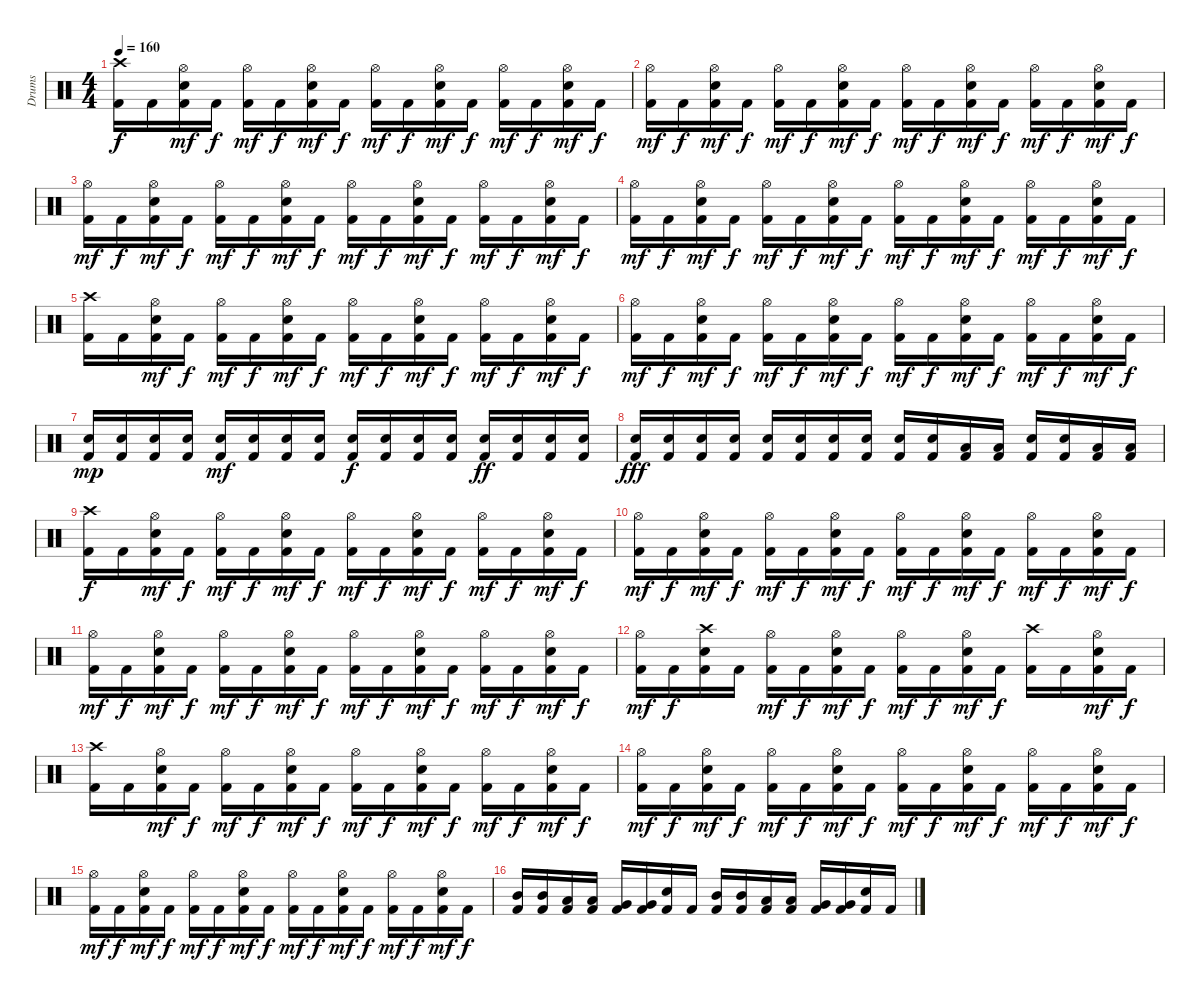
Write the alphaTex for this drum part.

\track ("Drums" "Drums") {instrument percussion}
\staff {score}
\articulation defaults
\ts (4 4)
\tempo 160
\clef neutral
\ks c
("Crash high (hit)" "Kick (hit) 2").16{dy f} "Kick (hit) 2".16 ("Hi-Hat (open)" "Electric Snare (hit)" "Kick (hit) 2").16{dy mf} "Kick (hit) 2".16{dy f} ("Hi-Hat (open)" "Kick (hit) 2").16{dy mf} "Kick (hit) 2".16{dy f} ("Hi-Hat (open)" "Electric Snare (hit)" "Kick (hit) 2").16{dy mf} "Kick (hit) 2".16{dy f} ("Hi-Hat (open)" "Kick (hit) 2").16{dy mf} "Kick (hit) 2".16{dy f} ("Hi-Hat (open)" "Electric Snare (hit)" "Kick (hit) 2").16{dy mf} "Kick (hit) 2".16{dy f} ("Hi-Hat (open)" "Kick (hit) 2").16{dy mf} "Kick (hit) 2".16{dy f} ("Hi-Hat (open)" "Electric Snare (hit)" "Kick (hit) 2").16{dy mf} "Kick (hit) 2".16{dy f} |
("Hi-Hat (open)" "Kick (hit) 2").16{dy mf} "Kick (hit) 2".16{dy f} ("Hi-Hat (open)" "Electric Snare (hit)" "Kick (hit) 2").16{dy mf} "Kick (hit) 2".16{dy f} ("Hi-Hat (open)" "Kick (hit) 2").16{dy mf} "Kick (hit) 2".16{dy f} ("Hi-Hat (open)" "Electric Snare (hit)" "Kick (hit) 2").16{dy mf} "Kick (hit) 2".16{dy f} ("Hi-Hat (open)" "Kick (hit) 2").16{dy mf} "Kick (hit) 2".16{dy f} ("Hi-Hat (open)" "Electric Snare (hit)" "Kick (hit) 2").16{dy mf} "Kick (hit) 2".16{dy f} ("Hi-Hat (open)" "Kick (hit) 2").16{dy mf} "Kick (hit) 2".16{dy f} ("Hi-Hat (open)" "Electric Snare (hit)" "Kick (hit) 2").16{dy mf} "Kick (hit) 2".16{dy f} |
("Hi-Hat (open)" "Kick (hit) 2").16{dy mf} "Kick (hit) 2".16{dy f} ("Hi-Hat (open)" "Electric Snare (hit)" "Kick (hit) 2").16{dy mf} "Kick (hit) 2".16{dy f} ("Hi-Hat (open)" "Kick (hit) 2").16{dy mf} "Kick (hit) 2".16{dy f} ("Hi-Hat (open)" "Electric Snare (hit)" "Kick (hit) 2").16{dy mf} "Kick (hit) 2".16{dy f} ("Hi-Hat (open)" "Kick (hit) 2").16{dy mf} "Kick (hit) 2".16{dy f} ("Hi-Hat (open)" "Electric Snare (hit)" "Kick (hit) 2").16{dy mf} "Kick (hit) 2".16{dy f} ("Hi-Hat (open)" "Kick (hit) 2").16{dy mf} "Kick (hit) 2".16{dy f} ("Hi-Hat (open)" "Electric Snare (hit)" "Kick (hit) 2").16{dy mf} "Kick (hit) 2".16{dy f} |
("Hi-Hat (open)" "Kick (hit) 2").16{dy mf} "Kick (hit) 2".16{dy f} ("Hi-Hat (open)" "Electric Snare (hit)" "Kick (hit) 2").16{dy mf} "Kick (hit) 2".16{dy f} ("Hi-Hat (open)" "Kick (hit) 2").16{dy mf} "Kick (hit) 2".16{dy f} ("Hi-Hat (open)" "Electric Snare (hit)" "Kick (hit) 2").16{dy mf} "Kick (hit) 2".16{dy f} ("Hi-Hat (open)" "Kick (hit) 2").16{dy mf} "Kick (hit) 2".16{dy f} ("Hi-Hat (open)" "Electric Snare (hit)" "Kick (hit) 2").16{dy mf} "Kick (hit) 2".16{dy f} ("Hi-Hat (open)" "Kick (hit) 2").16{dy mf} "Kick (hit) 2".16{dy f} ("Hi-Hat (open)" "Electric Snare (hit)" "Kick (hit) 2").16{dy mf} "Kick (hit) 2".16{dy f} |
("Crash high (hit)" "Kick (hit) 2").16 "Kick (hit) 2".16 ("Hi-Hat (open)" "Electric Snare (hit)" "Kick (hit) 2").16{dy mf} "Kick (hit) 2".16{dy f} ("Hi-Hat (open)" "Kick (hit) 2").16{dy mf} "Kick (hit) 2".16{dy f} ("Hi-Hat (open)" "Electric Snare (hit)" "Kick (hit) 2").16{dy mf} "Kick (hit) 2".16{dy f} ("Hi-Hat (open)" "Kick (hit) 2").16{dy mf} "Kick (hit) 2".16{dy f} ("Hi-Hat (open)" "Electric Snare (hit)" "Kick (hit) 2").16{dy mf} "Kick (hit) 2".16{dy f} ("Hi-Hat (open)" "Kick (hit) 2").16{dy mf} "Kick (hit) 2".16{dy f} ("Hi-Hat (open)" "Electric Snare (hit)" "Kick (hit) 2").16{dy mf} "Kick (hit) 2".16{dy f} |
("Hi-Hat (open)" "Kick (hit) 2").16{dy mf} "Kick (hit) 2".16{dy f} ("Hi-Hat (open)" "Electric Snare (hit)" "Kick (hit) 2").16{dy mf} "Kick (hit) 2".16{dy f} ("Hi-Hat (open)" "Kick (hit) 2").16{dy mf} "Kick (hit) 2".16{dy f} ("Hi-Hat (open)" "Electric Snare (hit)" "Kick (hit) 2").16{dy mf} "Kick (hit) 2".16{dy f} ("Hi-Hat (open)" "Kick (hit) 2").16{dy mf} "Kick (hit) 2".16{dy f} ("Hi-Hat (open)" "Electric Snare (hit)" "Kick (hit) 2").16{dy mf} "Kick (hit) 2".16{dy f} ("Hi-Hat (open)" "Kick (hit) 2").16{dy mf} "Kick (hit) 2".16{dy f} ("Hi-Hat (open)" "Electric Snare (hit)" "Kick (hit) 2").16{dy mf} "Kick (hit) 2".16{dy f} |
("Electric Snare (hit)" "Kick (hit) 2").16{dy mp} ("Electric Snare (hit)" "Kick (hit) 2").16 ("Electric Snare (hit)" "Kick (hit) 2").16 ("Electric Snare (hit)" "Kick (hit) 2").16 ("Electric Snare (hit)" "Kick (hit) 2").16{dy mf} ("Electric Snare (hit)" "Kick (hit) 2").16 ("Electric Snare (hit)" "Kick (hit) 2").16 ("Electric Snare (hit)" "Kick (hit) 2").16 ("Electric Snare (hit)" "Kick (hit) 2").16{dy f} ("Electric Snare (hit)" "Kick (hit) 2").16 ("Electric Snare (hit)" "Kick (hit) 2").16 ("Electric Snare (hit)" "Kick (hit) 2").16 ("Electric Snare (hit)" "Kick (hit) 2").16{dy ff} ("Electric Snare (hit)" "Kick (hit) 2").16 ("Electric Snare (hit)" "Kick (hit) 2").16 ("Electric Snare (hit)" "Kick (hit) 2").16 |
("Electric Snare (hit)" "Kick (hit) 2").16{dy fff} ("Electric Snare (hit)" "Kick (hit) 2").16 ("Electric Snare (hit)" "Kick (hit) 2").16 ("Electric Snare (hit)" "Kick (hit) 2").16 ("Electric Snare (hit)" "Kick (hit) 2").16 ("Electric Snare (hit)" "Kick (hit) 2").16 ("Electric Snare (hit)" "Kick (hit) 2").16 ("Electric Snare (hit)" "Kick (hit) 2").16 ("Electric Snare (hit)" "Kick (hit) 2").16 ("Electric Snare (hit)" "Kick (hit) 2").16 ("Low Floor Tom (hit)" "Kick (hit) 2").16 ("Low Floor Tom (hit)" "Kick (hit) 2").16 ("Electric Snare (hit)" "Kick (hit) 2").16 ("Electric Snare (hit)" "Kick (hit) 2").16 ("Low Floor Tom (hit)" "Kick (hit) 2").16 ("Low Floor Tom (hit)" "Kick (hit) 2").16 |
("Crash high (hit)" "Kick (hit) 2").16{dy f} "Kick (hit) 2".16 ("Hi-Hat (open)" "Electric Snare (hit)" "Kick (hit) 2").16{dy mf} "Kick (hit) 2".16{dy f} ("Hi-Hat (open)" "Kick (hit) 2").16{dy mf} "Kick (hit) 2".16{dy f} ("Hi-Hat (open)" "Electric Snare (hit)" "Kick (hit) 2").16{dy mf} "Kick (hit) 2".16{dy f} ("Hi-Hat (open)" "Kick (hit) 2").16{dy mf} "Kick (hit) 2".16{dy f} ("Hi-Hat (open)" "Electric Snare (hit)" "Kick (hit) 2").16{dy mf} "Kick (hit) 2".16{dy f} ("Hi-Hat (open)" "Kick (hit) 2").16{dy mf} "Kick (hit) 2".16{dy f} ("Hi-Hat (open)" "Electric Snare (hit)" "Kick (hit) 2").16{dy mf} "Kick (hit) 2".16{dy f} |
("Hi-Hat (open)" "Kick (hit) 2").16{dy mf} "Kick (hit) 2".16{dy f} ("Hi-Hat (open)" "Electric Snare (hit)" "Kick (hit) 2").16{dy mf} "Kick (hit) 2".16{dy f} ("Hi-Hat (open)" "Kick (hit) 2").16{dy mf} "Kick (hit) 2".16{dy f} ("Hi-Hat (open)" "Electric Snare (hit)" "Kick (hit) 2").16{dy mf} "Kick (hit) 2".16{dy f} ("Hi-Hat (open)" "Kick (hit) 2").16{dy mf} "Kick (hit) 2".16{dy f} ("Hi-Hat (open)" "Electric Snare (hit)" "Kick (hit) 2").16{dy mf} "Kick (hit) 2".16{dy f} ("Hi-Hat (open)" "Kick (hit) 2").16{dy mf} "Kick (hit) 2".16{dy f} ("Hi-Hat (open)" "Electric Snare (hit)" "Kick (hit) 2").16{dy mf} "Kick (hit) 2".16{dy f} |
("Hi-Hat (open)" "Kick (hit) 2").16{dy mf} "Kick (hit) 2".16{dy f} ("Hi-Hat (open)" "Electric Snare (hit)" "Kick (hit) 2").16{dy mf} "Kick (hit) 2".16{dy f} ("Hi-Hat (open)" "Kick (hit) 2").16{dy mf} "Kick (hit) 2".16{dy f} ("Hi-Hat (open)" "Electric Snare (hit)" "Kick (hit) 2").16{dy mf} "Kick (hit) 2".16{dy f} ("Hi-Hat (open)" "Kick (hit) 2").16{dy mf} "Kick (hit) 2".16{dy f} ("Hi-Hat (open)" "Electric Snare (hit)" "Kick (hit) 2").16{dy mf} "Kick (hit) 2".16{dy f} ("Hi-Hat (open)" "Kick (hit) 2").16{dy mf} "Kick (hit) 2".16{dy f} ("Hi-Hat (open)" "Electric Snare (hit)" "Kick (hit) 2").16{dy mf} "Kick (hit) 2".16{dy f} |
("Hi-Hat (open)" "Kick (hit) 2").16{dy mf} "Kick (hit) 2".16{dy f} ("Crash high (hit)" "Electric Snare (hit)" "Kick (hit) 2").16 "Kick (hit) 2".16 ("Hi-Hat (open)" "Kick (hit) 2").16{dy mf} "Kick (hit) 2".16{dy f} ("Hi-Hat (open)" "Electric Snare (hit)" "Kick (hit) 2").16{dy mf} "Kick (hit) 2".16{dy f} ("Hi-Hat (open)" "Kick (hit) 2").16{dy mf} "Kick (hit) 2".16{dy f} ("Hi-Hat (open)" "Electric Snare (hit)" "Kick (hit) 2").16{dy mf} "Kick (hit) 2".16{dy f} ("Crash high (hit)" "Kick (hit) 2").16 "Kick (hit) 2".16 ("Hi-Hat (open)" "Electric Snare (hit)" "Kick (hit) 2").16{dy mf} "Kick (hit) 2".16{dy f} |
("Crash high (hit)" "Kick (hit) 2").16 "Kick (hit) 2".16 ("Hi-Hat (open)" "Electric Snare (hit)" "Kick (hit) 2").16{dy mf} "Kick (hit) 2".16{dy f} ("Hi-Hat (open)" "Kick (hit) 2").16{dy mf} "Kick (hit) 2".16{dy f} ("Hi-Hat (open)" "Electric Snare (hit)" "Kick (hit) 2").16{dy mf} "Kick (hit) 2".16{dy f} ("Hi-Hat (open)" "Kick (hit) 2").16{dy mf} "Kick (hit) 2".16{dy f} ("Hi-Hat (open)" "Electric Snare (hit)" "Kick (hit) 2").16{dy mf} "Kick (hit) 2".16{dy f} ("Hi-Hat (open)" "Kick (hit) 2").16{dy mf} "Kick (hit) 2".16{dy f} ("Hi-Hat (open)" "Electric Snare (hit)" "Kick (hit) 2").16{dy mf} "Kick (hit) 2".16{dy f} |
("Hi-Hat (open)" "Kick (hit) 2").16{dy mf} "Kick (hit) 2".16{dy f} ("Hi-Hat (open)" "Electric Snare (hit)" "Kick (hit) 2").16{dy mf} "Kick (hit) 2".16{dy f} ("Hi-Hat (open)" "Kick (hit) 2").16{dy mf} "Kick (hit) 2".16{dy f} ("Hi-Hat (open)" "Electric Snare (hit)" "Kick (hit) 2").16{dy mf} "Kick (hit) 2".16{dy f} ("Hi-Hat (open)" "Kick (hit) 2").16{dy mf} "Kick (hit) 2".16{dy f} ("Hi-Hat (open)" "Electric Snare (hit)" "Kick (hit) 2").16{dy mf} "Kick (hit) 2".16{dy f} ("Hi-Hat (open)" "Kick (hit) 2").16{dy mf} "Kick (hit) 2".16{dy f} ("Hi-Hat (open)" "Electric Snare (hit)" "Kick (hit) 2").16{dy mf} "Kick (hit) 2".16{dy f} |
("Hi-Hat (open)" "Kick (hit) 2").16{dy mf} "Kick (hit) 2".16{dy f} ("Hi-Hat (open)" "Electric Snare (hit)" "Kick (hit) 2").16{dy mf} "Kick (hit) 2".16{dy f} ("Hi-Hat (open)" "Kick (hit) 2").16{dy mf} "Kick (hit) 2".16{dy f} ("Hi-Hat (open)" "Electric Snare (hit)" "Kick (hit) 2").16{dy mf} "Kick (hit) 2".16{dy f} ("Hi-Hat (open)" "Kick (hit) 2").16{dy mf} "Kick (hit) 2".16{dy f} ("Hi-Hat (open)" "Electric Snare (hit)" "Kick (hit) 2").16{dy mf} "Kick (hit) 2".16{dy f} ("Hi-Hat (open)" "Kick (hit) 2").16{dy mf} "Kick (hit) 2".16{dy f} ("Hi-Hat (open)" "Electric Snare (hit)" "Kick (hit) 2").16{dy mf} "Kick (hit) 2".16{dy f} |
("Mid Tom (hit)" "Kick (hit) 2").16 ("Mid Tom (hit)" "Kick (hit) 2").16 ("Low Tom (hit)" "Kick (hit) 2").16 ("Low Tom (hit)" "Kick (hit) 2").16 ("Very Low Tom (hit)" "Kick (hit) 2").16 ("Very Low Tom (hit)" "Kick (hit) 2").16 ("Electric Snare (hit)" "Kick (hit) 2").16 "Kick (hit) 2".16 ("Mid Tom (hit)" "Kick (hit) 2").16 ("Mid Tom (hit)" "Kick (hit) 2").16 ("Low Tom (hit)" "Kick (hit) 2").16 ("Low Tom (hit)" "Kick (hit) 2").16 ("Very Low Tom (hit)" "Kick (hit) 2").16 ("Very Low Tom (hit)" "Kick (hit) 2").16 ("Electric Snare (hit)" "Kick (hit) 2").16 "Kick (hit) 2".16
